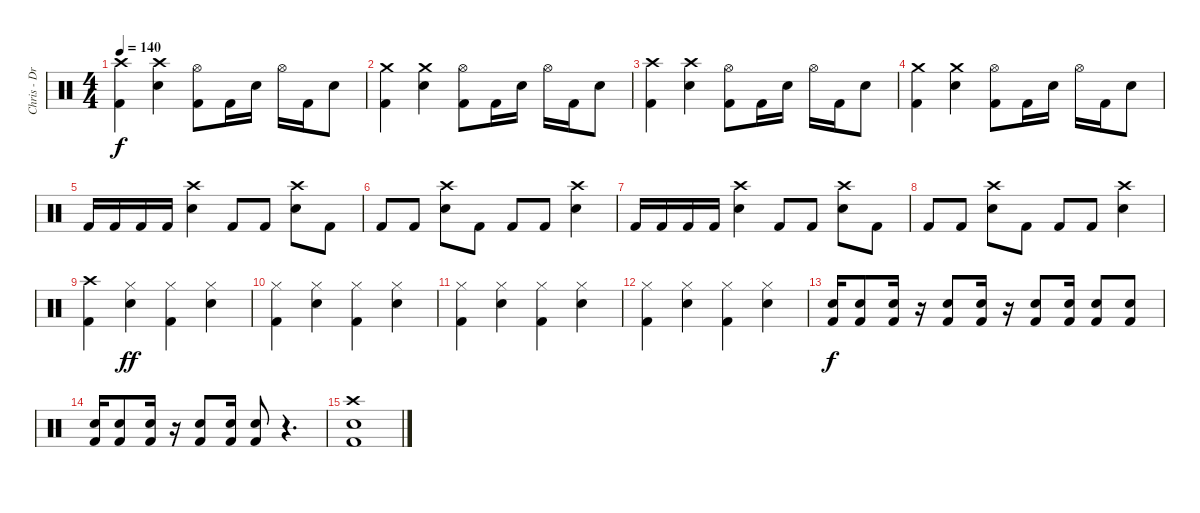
\track ("Chris - Drums" "Chris - Dr") {instrument percussion}
\staff {score}
\articulation defaults
\ts (4 4)
\tempo 140
\clef neutral
\ks c
("Crash high (hit)" "Kick (hit) 2").4{dy f} ("Crash high (hit)" "Electric Snare (hit)").4 ("Hi-Hat (open)" "Kick (hit) 2").8 "Kick (hit) 2".16 "Electric Snare (hit)".16 "Hi-Hat (open)".16 "Kick (hit) 2".16 "Electric Snare (hit)".8 |
("Crash medium (hit)" "Kick (hit) 2").4 ("Crash medium (hit)" "Electric Snare (hit)").4 ("Hi-Hat (open)" "Kick (hit) 2").8 "Kick (hit) 2".16 "Electric Snare (hit)".16 "Hi-Hat (open)".16 "Kick (hit) 2".16 "Electric Snare (hit)".8 |
("Crash high (hit)" "Kick (hit) 2").4 ("Crash high (hit)" "Electric Snare (hit)").4 ("Hi-Hat (open)" "Kick (hit) 2").8 "Kick (hit) 2".16 "Electric Snare (hit)".16 "Hi-Hat (open)".16 "Kick (hit) 2".16 "Electric Snare (hit)".8 |
("Crash medium (hit)" "Kick (hit) 2").4 ("Crash medium (hit)" "Electric Snare (hit)").4 ("Hi-Hat (open)" "Kick (hit) 2").8 "Kick (hit) 2".16 "Electric Snare (hit)".16 "Hi-Hat (open)".16 "Kick (hit) 2".16 "Electric Snare (hit)".8 |
"Kick (hit) 2".16 "Kick (hit) 2".16 "Kick (hit) 2".16 "Kick (hit) 2".16 ("Crash high (hit)" "Electric Snare (hit)").4 "Kick (hit) 2".8 "Kick (hit) 2".8 ("Crash high (hit)" "Electric Snare (hit)").8 "Kick (hit) 2".8 |
"Kick (hit) 2".8 "Kick (hit) 2".8 ("Crash high (hit)" "Electric Snare (hit)").8 "Kick (hit) 2".8 "Kick (hit) 2".8 "Kick (hit) 2".8 ("Crash high (hit)" "Electric Snare (hit)").4 |
"Kick (hit) 2".16 "Kick (hit) 2".16 "Kick (hit) 2".16 "Kick (hit) 2".16 ("Crash high (hit)" "Electric Snare (hit)").4 "Kick (hit) 2".8 "Kick (hit) 2".8 ("Crash high (hit)" "Electric Snare (hit)").8 "Kick (hit) 2".8 |
"Kick (hit) 2".8 "Kick (hit) 2".8 ("Crash high (hit)" "Electric Snare (hit)").8 "Kick (hit) 2".8 "Kick (hit) 2".8 "Kick (hit) 2".8 ("Crash high (hit)" "Electric Snare (hit)").4 |
("Crash high (hit)" "Kick (hit) 2").4 ("Hi-Hat (closed)" "Electric Snare (hit)").4{dy ff} ("Hi-Hat (closed)" "Kick (hit) 2").4 ("Hi-Hat (closed)" "Electric Snare (hit)").4 |
("Hi-Hat (closed)" "Kick (hit) 2").4 ("Hi-Hat (closed)" "Electric Snare (hit)").4 ("Hi-Hat (closed)" "Kick (hit) 2").4 ("Hi-Hat (closed)" "Electric Snare (hit)").4 |
("Hi-Hat (closed)" "Kick (hit) 2").4 ("Hi-Hat (closed)" "Electric Snare (hit)").4 ("Hi-Hat (closed)" "Kick (hit) 2").4 ("Hi-Hat (closed)" "Electric Snare (hit)").4 |
("Hi-Hat (closed)" "Kick (hit) 2").4 ("Hi-Hat (closed)" "Electric Snare (hit)").4 ("Hi-Hat (closed)" "Kick (hit) 2").4 ("Hi-Hat (closed)" "Electric Snare (hit)").4 |
("Electric Snare (hit)" "Kick (hit) 2").16{dy f} ("Electric Snare (hit)" "Kick (hit) 2").8 ("Electric Snare (hit)" "Kick (hit) 2").16 r.16 ("Electric Snare (hit)" "Kick (hit) 2").8 ("Electric Snare (hit)" "Kick (hit) 2").16 r.16 ("Electric Snare (hit)" "Kick (hit) 2").8 ("Electric Snare (hit)" "Kick (hit) 2").16 ("Electric Snare (hit)" "Kick (hit) 2").8 ("Electric Snare (hit)" "Kick (hit) 2").8 |
("Electric Snare (hit)" "Kick (hit) 2").16 ("Electric Snare (hit)" "Kick (hit) 2").8 ("Electric Snare (hit)" "Kick (hit) 2").16 r.16 ("Electric Snare (hit)" "Kick (hit) 2").8 ("Electric Snare (hit)" "Kick (hit) 2").16 ("Electric Snare (hit)" "Kick (hit) 2").8 r.4{d} |
("Crash high (hit)" "Electric Snare (hit)" "Kick (hit) 2").1
